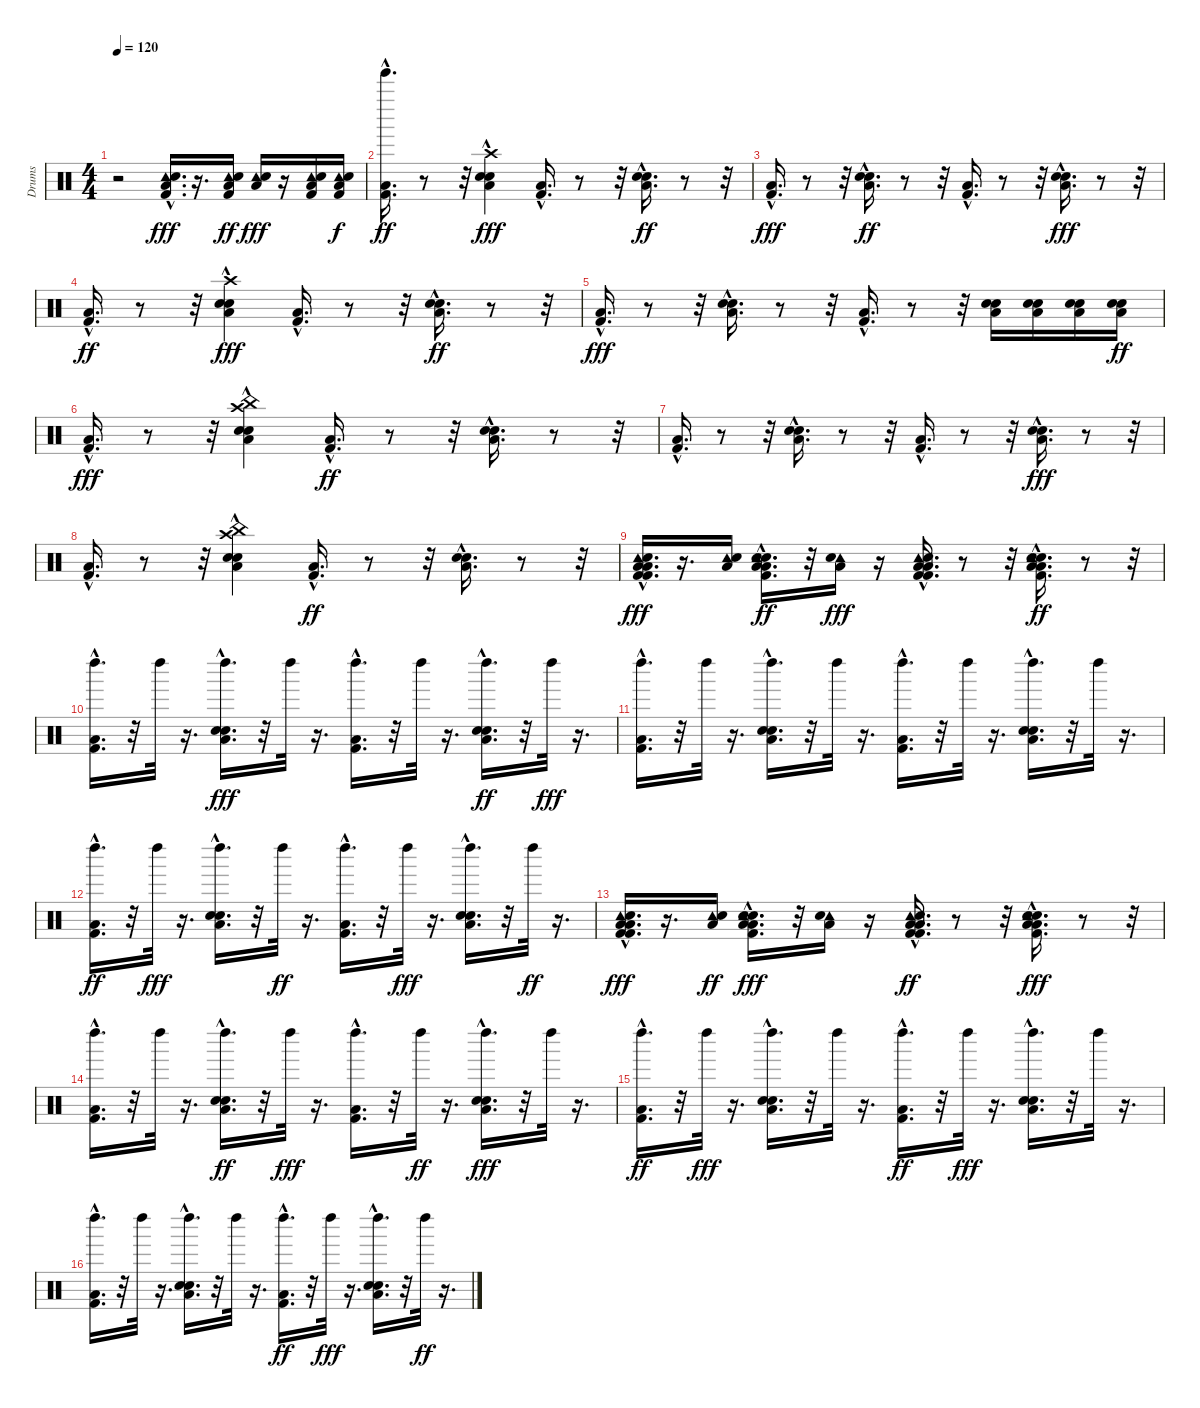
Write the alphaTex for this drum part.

\track ("Drums" "Drums") {instrument percussion}
\staff {score}
\articulation defaults
\ts (4 4)
\tempo 120
\clef neutral
\ks c
r.2{dy fff} ("Tambourine (hit)" "Low Floor Tom (hit)" "Snare (hit) 2"{hac} "Kick (hit) 2").16{d} r.16{d} ("Tambourine (hit)" "Low Floor Tom (hit)" "Snare (hit) 2" "Kick (hit) 2").16{dy ff} ("Tambourine (hit)" "Snare (hit) 2" "Low Floor Tom (hit)").16{dy fff} r.16 ("Tambourine (hit)" "Kick (hit) 2" "Snare (hit) 2" "Low Floor Tom (hit)").16 ("Tambourine (hit)" "Kick (hit) 2" "Snare (hit) 2" "Low Floor Tom (hit)").16{dy f} |
("Tinkle Bell (hit)" "Low Floor Tom (hit)"{hac} "Kick (hit) 2"{hac}).16{d dy ff} r.8 r.32 ("Crash high (hit)" "Electric Snare (hit)"{hac} "Low Floor Tom (hit)"{hac} "Snare (hit) 2"{hac}).4{dy fff} ("Low Floor Tom (hit)"{hac} "Kick (hit) 2"{hac}).16{d} r.8 r.32 ("Electric Snare (hit)"{hac} "Low Floor Tom (hit)"{hac} "Snare (hit) 2"{hac}).16{d dy ff} r.8 r.32 |
("Low Floor Tom (hit)"{hac} "Kick (hit) 2"{hac}).16{d dy fff} r.8 r.32 ("Electric Snare (hit)"{hac} "Low Floor Tom (hit)"{hac} "Snare (hit) 2"{hac}).16{d dy ff} r.8 r.32 ("Low Floor Tom (hit)"{hac} "Kick (hit) 2"{hac}).16{d} r.8 r.32 ("Electric Snare (hit)"{hac} "Low Floor Tom (hit)"{hac} "Snare (hit) 2"{hac}).16{d dy fff} r.8 r.32 |
("Low Floor Tom (hit)"{hac} "Kick (hit) 2"{hac}).16{d dy ff} r.8 r.32 ("Crash high (hit)" "Electric Snare (hit)"{hac} "Low Floor Tom (hit)"{hac} "Snare (hit) 2"{hac}).4{dy fff} ("Low Floor Tom (hit)"{hac} "Kick (hit) 2"{hac}).16{d} r.8 r.32 ("Electric Snare (hit)"{hac} "Low Floor Tom (hit)"{hac} "Snare (hit) 2"{hac}).16{d dy ff} r.8 r.32 |
("Low Floor Tom (hit)"{hac} "Kick (hit) 2"{hac}).16{d dy fff} r.8 r.32 ("Electric Snare (hit)"{hac} "Low Floor Tom (hit)"{hac} "Snare (hit) 2"{hac}).16{d} r.8 r.32 ("Low Floor Tom (hit)"{hac} "Kick (hit) 2"{hac}).16{d} r.8 r.32 ("Electric Snare (hit)" "Low Floor Tom (hit)" "Snare (hit) 2").16 ("Electric Snare (hit)" "Snare (hit) 2" "Low Floor Tom (hit)").16 ("Electric Snare (hit)" "Low Floor Tom (hit)" "Snare (hit) 2").16 ("Low Floor Tom (hit)" "Electric Snare (hit)" "Snare (hit) 2").16{dy ff} |
("Low Floor Tom (hit)"{hac} "Kick (hit) 2"{hac}).16{d dy fff} r.8 r.32 ("Crash high (hit)" "China (hit)" "Electric Snare (hit)"{hac} "Low Floor Tom (hit)"{hac} "Snare (hit) 2"{hac}).4 ("Low Floor Tom (hit)"{hac} "Kick (hit) 2"{hac}).16{d dy ff} r.8 r.32 ("Electric Snare (hit)"{hac} "Low Floor Tom (hit)"{hac} "Snare (hit) 2"{hac}).16{d} r.8 r.32 |
("Low Floor Tom (hit)"{hac} "Kick (hit) 2"{hac}).16{d} r.8 r.32 ("Electric Snare (hit)"{hac} "Low Floor Tom (hit)"{hac} "Snare (hit) 2"{hac}).16{d} r.8 r.32 ("Low Floor Tom (hit)"{hac} "Kick (hit) 2"{hac}).16{d} r.8 r.32 ("Electric Snare (hit)"{hac} "Low Floor Tom (hit)"{hac} "Snare (hit) 2"{hac}).16{d dy fff} r.8 r.32 |
("Low Floor Tom (hit)"{hac} "Kick (hit) 2"{hac}).16{d} r.8 r.32 ("Crash high (hit)" "China (hit)" "Electric Snare (hit)"{hac} "Low Floor Tom (hit)"{hac} "Snare (hit) 2"{hac}).4 ("Low Floor Tom (hit)"{hac} "Kick (hit) 2"{hac}).16{d dy ff} r.8 r.32 ("Electric Snare (hit)"{hac} "Low Floor Tom (hit)"{hac} "Snare (hit) 2"{hac}).16{d} r.8 r.32 |
("Low Floor Tom (hit)"{hac} "Kick (hit) 2"{hac} "Tambourine (hit)" "Low Floor Tom (hit)"{hac} "Kick (hit) 2"{hac} "Snare (hit) 2"{hac}).16{d dy fff} r.16{d} ("Tambourine (hit)" "Low Floor Tom (hit)" "Snare (hit) 2").16 ("Electric Snare (hit)"{hac} "Low Floor Tom (hit)"{hac} "Snare (hit) 2"{hac} "Tambourine (hit)" "Low Floor Tom (hit)"{hac} "Kick (hit) 2").16{d dy ff} r.32 ("Tambourine (hit)" "Low Floor Tom (hit)" "Snare (hit) 2").16{dy fff} r.16 ("Low Floor Tom (hit)"{hac} "Kick (hit) 2"{hac} "Tambourine (hit)" "Low Floor Tom (hit)"{hac} "Kick (hit) 2"{hac} "Snare (hit) 2").16{d} r.8 r.32 ("Electric Snare (hit)"{hac} "Low Floor Tom (hit)"{hac} "Snare (hit) 2"{hac} "Tambourine (hit)" "Kick (hit) 2" "Low Floor Tom (hit)"{hac}).16{d dy ff} r.8 r.32 |
("Left Maraca (hit)" "Low Floor Tom (hit)"{hac} "Kick (hit) 2"{hac}).16{d} r.32 "Left Maraca (hit)".32 r.16{d} ("Left Maraca (hit)" "Electric Snare (hit)"{hac} "Low Floor Tom (hit)"{hac} "Snare (hit) 2"{hac}).16{d dy fff} r.32 "Left Maraca (hit)".32 r.16{d} ("Left Maraca (hit)" "Low Floor Tom (hit)"{hac} "Kick (hit) 2"{hac}).16{d} r.32 "Left Maraca (hit)".32 r.16{d} ("Left Maraca (hit)" "Electric Snare (hit)"{hac} "Low Floor Tom (hit)"{hac} "Snare (hit) 2"{hac}).16{d dy ff} r.32 "Left Maraca (hit)".32{dy fff} r.16{d} |
("Left Maraca (hit)" "Low Floor Tom (hit)"{hac} "Kick (hit) 2"{hac}).16{d} r.32 "Left Maraca (hit)".32 r.16{d} ("Left Maraca (hit)" "Electric Snare (hit)"{hac} "Low Floor Tom (hit)"{hac} "Snare (hit) 2"{hac}).16{d} r.32 "Left Maraca (hit)".32 r.16{d} ("Left Maraca (hit)" "Low Floor Tom (hit)"{hac} "Kick (hit) 2"{hac}).16{d} r.32 "Left Maraca (hit)".32 r.16{d} ("Left Maraca (hit)" "Electric Snare (hit)"{hac} "Low Floor Tom (hit)"{hac} "Snare (hit) 2"{hac}).16{d} r.32 "Left Maraca (hit)".32 r.16{d} |
("Left Maraca (hit)" "Low Floor Tom (hit)"{hac} "Kick (hit) 2"{hac}).16{d dy ff} r.32 "Left Maraca (hit)".32{dy fff} r.16{d} ("Left Maraca (hit)" "Electric Snare (hit)"{hac} "Low Floor Tom (hit)"{hac} "Snare (hit) 2"{hac}).16{d} r.32 "Left Maraca (hit)".32{dy ff} r.16{d} ("Left Maraca (hit)" "Low Floor Tom (hit)"{hac} "Kick (hit) 2"{hac}).16{d} r.32 "Left Maraca (hit)".32{dy fff} r.16{d} ("Left Maraca (hit)" "Electric Snare (hit)"{hac} "Low Floor Tom (hit)"{hac} "Snare (hit) 2"{hac}).16{d} r.32 "Left Maraca (hit)".32{dy ff} r.16{d} |
("Low Floor Tom (hit)"{hac} "Kick (hit) 2"{hac} "Tambourine (hit)" "Low Floor Tom (hit)"{hac} "Kick (hit) 2"{hac} "Snare (hit) 2"{hac}).16{d dy fff} r.16{d} ("Tambourine (hit)" "Low Floor Tom (hit)" "Snare (hit) 2").16{dy ff} ("Electric Snare (hit)"{hac} "Low Floor Tom (hit)"{hac} "Snare (hit) 2"{hac} "Tambourine (hit)" "Low Floor Tom (hit)"{hac} "Kick (hit) 2").16{d dy fff} r.32 ("Tambourine (hit)" "Low Floor Tom (hit)" "Snare (hit) 2").16 r.16 ("Low Floor Tom (hit)"{hac} "Kick (hit) 2"{hac} "Tambourine (hit)" "Low Floor Tom (hit)"{hac} "Kick (hit) 2"{hac} "Snare (hit) 2").16{d dy ff} r.8 r.32 ("Electric Snare (hit)"{hac} "Low Floor Tom (hit)"{hac} "Snare (hit) 2"{hac} "Tambourine (hit)" "Kick (hit) 2" "Low Floor Tom (hit)"{hac}).16{d dy fff} r.8 r.32 |
("Left Maraca (hit)" "Low Floor Tom (hit)"{hac} "Kick (hit) 2"{hac}).16{d} r.32 "Left Maraca (hit)".32 r.16{d} ("Left Maraca (hit)" "Electric Snare (hit)"{hac} "Low Floor Tom (hit)"{hac} "Snare (hit) 2"{hac}).16{d dy ff} r.32 "Left Maraca (hit)".32{dy fff} r.16{d} ("Left Maraca (hit)" "Low Floor Tom (hit)"{hac} "Kick (hit) 2"{hac}).16{d} r.32 "Left Maraca (hit)".32{dy ff} r.16{d} ("Left Maraca (hit)" "Electric Snare (hit)"{hac} "Low Floor Tom (hit)"{hac} "Snare (hit) 2"{hac}).16{d dy fff} r.32 "Left Maraca (hit)".32 r.16{d} |
("Left Maraca (hit)" "Low Floor Tom (hit)"{hac} "Kick (hit) 2"{hac}).16{d dy ff} r.32 "Left Maraca (hit)".32{dy fff} r.16{d} ("Left Maraca (hit)" "Electric Snare (hit)"{hac} "Low Floor Tom (hit)"{hac} "Snare (hit) 2"{hac}).16{d} r.32 "Left Maraca (hit)".32 r.16{d} ("Left Maraca (hit)" "Low Floor Tom (hit)"{hac} "Kick (hit) 2"{hac}).16{d dy ff} r.32 "Left Maraca (hit)".32{dy fff} r.16{d} ("Left Maraca (hit)" "Electric Snare (hit)"{hac} "Low Floor Tom (hit)"{hac} "Snare (hit) 2"{hac}).16{d} r.32 "Left Maraca (hit)".32 r.16{d} |
("Left Maraca (hit)" "Low Floor Tom (hit)"{hac} "Kick (hit) 2"{hac}).16{d} r.32 "Left Maraca (hit)".32 r.16{d} ("Left Maraca (hit)" "Electric Snare (hit)"{hac} "Low Floor Tom (hit)"{hac} "Snare (hit) 2"{hac}).16{d} r.32 "Left Maraca (hit)".32 r.16{d} ("Left Maraca (hit)" "Low Floor Tom (hit)"{hac} "Kick (hit) 2"{hac}).16{d dy ff} r.32 "Left Maraca (hit)".32{dy fff} r.16{d} ("Left Maraca (hit)" "Electric Snare (hit)"{hac} "Low Floor Tom (hit)"{hac} "Snare (hit) 2"{hac}).16{d} r.32 "Left Maraca (hit)".32{dy ff} r.16{d}
